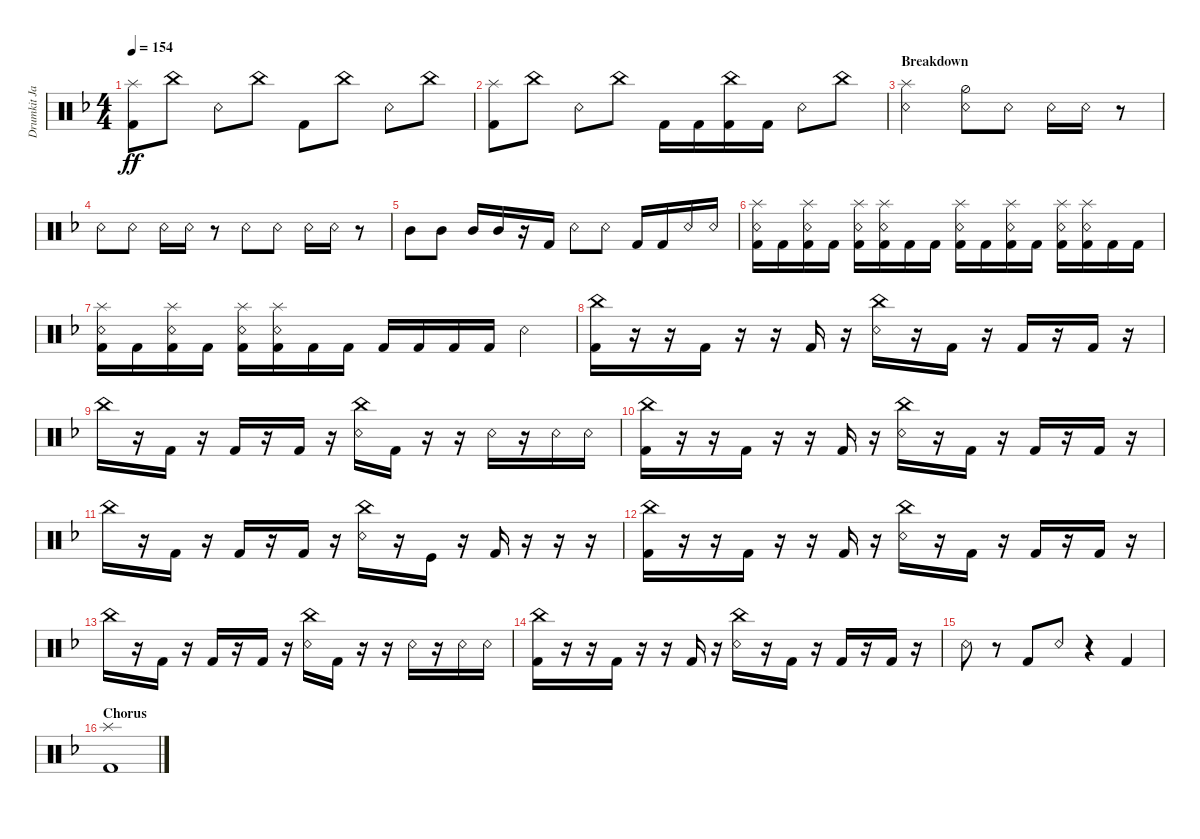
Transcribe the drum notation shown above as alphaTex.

\track ("Drumkit Jason" "Drumkit Ja") {instrument percussion}
\staff {score}
\articulation defaults
\ts (4 4)
\tempo 154
\clef neutral
\ks dminor
("Splash (hit)" "Kick (hit) 2").8{dy ff} "China (hit)".8 "Snare (rim shot)".8 "China (hit)".8 "Kick (hit) 2".8 "China (hit)".8 "Snare (rim shot)".8 "China (hit)".8 |
("Splash (hit)" "Kick (hit) 2").8 "China (hit)".8 "Snare (rim shot)".8 "China (hit)".8 "Kick (hit) 2".16 "Kick (hit) 2".16 ("China (hit)" "Kick (hit) 2").16 "Kick (hit) 2".16 "Snare (rim shot)".8 "China (hit)".8 |
\section ("" "Breakdown")
("Snare (rim shot)" "Splash (hit)").2 ("Snare (rim shot)" "Hi-Hat (half)").8 "Snare (rim shot)".8 "Snare (rim shot)".16 "Snare (rim shot)".16 r.8 |
"Snare (rim shot)".8 "Snare (rim shot)".8 "Snare (rim shot)".16 "Snare (rim shot)".16 r.8 "Snare (rim shot)".8 "Snare (rim shot)".8 "Snare (rim shot)".16 "Snare (rim shot)".16 r.8 |
"Mid Tom (hit)".8 "Mid Tom (hit)".8 "Mid Tom (hit)".16 "Mid Tom (hit)".16 r.16 "Kick (hit) 2".16 "Snare (rim shot)".8 "Snare (rim shot)".8 "Kick (hit) 2".16 "Kick (hit) 2".16 "Snare (rim shot)".16 "Snare (rim shot)".16 |
("Kick (hit) 2" "Snare (rim shot)" "Splash (hit)").16 "Kick (hit) 2".16 ("Kick (hit) 2" "Snare (rim shot)" "Splash (hit)").16 "Kick (hit) 2".16 ("Kick (hit) 2" "Snare (rim shot)" "Splash (hit)").16 ("Kick (hit) 2" "Snare (rim shot)" "Splash (hit)").16 "Kick (hit) 2".16 "Kick (hit) 2".16 ("Kick (hit) 2" "Snare (rim shot)" "Splash (hit)").16 "Kick (hit) 2".16 ("Kick (hit) 2" "Snare (rim shot)" "Splash (hit)").16 "Kick (hit) 2".16 ("Kick (hit) 2" "Snare (rim shot)" "Splash (hit)").16 ("Kick (hit) 2" "Snare (rim shot)" "Splash (hit)").16 "Kick (hit) 2".16 "Kick (hit) 2".16 |
("Kick (hit) 2" "Snare (rim shot)" "Splash (hit)").16 "Kick (hit) 2".16 ("Kick (hit) 2" "Snare (rim shot)" "Splash (hit)").16 "Kick (hit) 2".16 ("Kick (hit) 2" "Snare (rim shot)" "Splash (hit)").16 ("Kick (hit) 2" "Snare (rim shot)" "Splash (hit)").16 "Kick (hit) 2".16 "Kick (hit) 2".16 "Kick (hit) 2".16 "Kick (hit) 2".16 "Kick (hit) 2".16 "Kick (hit) 2".16 "Snare (rim shot)".4 |
("Kick (hit) 2" "China (hit)").16 r.16 r.16 "Kick (hit) 2".16 r.16 r.16 "Kick (hit) 2".16 r.16 ("Snare (rim shot)" "China (hit)").16 r.16 "Kick (hit) 2".16 r.16 "Kick (hit) 2".16 r.16 "Kick (hit) 2".16 r.16 |
"China (hit)".16 r.16 "Kick (hit) 2".16 r.16 "Kick (hit) 2".16 r.16 "Kick (hit) 2".16 r.16 ("Snare (rim shot)" "China (hit)").16 "Kick (hit) 2".16 r.16 r.16 "Snare (rim shot)".16 r.16 "Snare (rim shot)".16 "Snare (rim shot)".16 |
("Kick (hit) 2" "China (hit)").16 r.16 r.16 "Kick (hit) 2".16 r.16 r.16 "Kick (hit) 2".16 r.16 ("Snare (rim shot)" "China (hit)").16 r.16 "Kick (hit) 2".16 r.16 "Kick (hit) 2".16 r.16 "Kick (hit) 2".16 r.16 |
"China (hit)".16 r.16 "Kick (hit) 2".16 r.16 "Kick (hit) 2".16 r.16 "Kick (hit) 2".16 r.16 ("Snare (rim shot)" "China (hit)").16 r.16 "Kick (hit)".16 r.16 "Kick (hit) 2".16 r.16 r.16 r.16 |
("Kick (hit) 2" "China (hit)").16 r.16 r.16 "Kick (hit) 2".16 r.16 r.16 "Kick (hit) 2".16 r.16 ("Snare (rim shot)" "China (hit)").16 r.16 "Kick (hit) 2".16 r.16 "Kick (hit) 2".16 r.16 "Kick (hit) 2".16 r.16 |
"China (hit)".16 r.16 "Kick (hit) 2".16 r.16 "Kick (hit) 2".16 r.16 "Kick (hit) 2".16 r.16 ("Snare (rim shot)" "China (hit)").16 "Kick (hit) 2".16 r.16 r.16 "Snare (rim shot)".16 r.16 "Snare (rim shot)".16 "Snare (rim shot)".16 |
("Kick (hit) 2" "China (hit)").16 r.16 r.16 "Kick (hit) 2".16 r.16 r.16 "Kick (hit) 2".16 r.16 ("Snare (rim shot)" "China (hit)").16 r.16 "Kick (hit) 2".16 r.16 "Kick (hit) 2".16 r.16 "Kick (hit) 2".16 r.16 |
"Snare (rim shot)".8 r.8 "Kick (hit) 2".8 "Snare (rim shot)".8 r.4 "Kick (hit) 2".4 |
\section ("" "Chorus")
("Splash (hit)" "Kick (hit) 2").1
